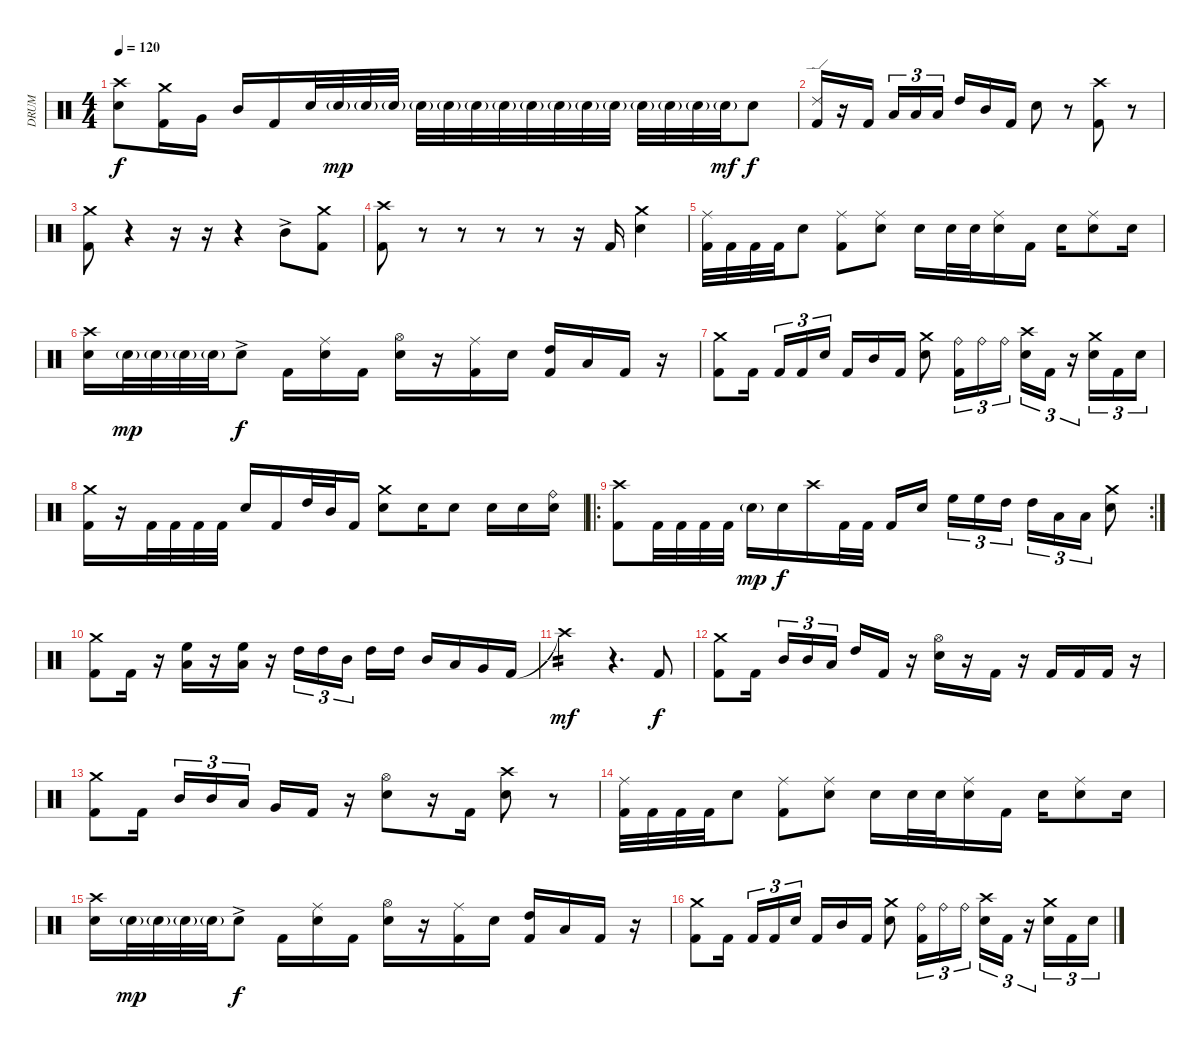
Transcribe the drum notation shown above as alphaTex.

\track ("DRUM" "DRUM") {instrument percussion}
\staff {score}
\articulation defaults
\ts (4 4)
\tempo 120
\clef neutral
\ks c
("Crash high (hit)" "Electric Snare (hit)").8{dy f} ("Crash medium (hit)" "Kick (hit) 2").16 "Very Low Tom (hit)".16 "Mid Tom (hit)".16 "Kick (hit) 2".16 "Electric Snare (hit)".32 "Electric Snare (hit)"{g}.32{dy mp} "Electric Snare (hit)"{g}.32 "Electric Snare (hit)"{g}.32 "Electric Snare (hit)"{g}.32 "Electric Snare (hit)"{g}.32 "Electric Snare (hit)"{g}.32 "Electric Snare (hit)"{g}.32 "Electric Snare (hit)"{g}.32 "Electric Snare (hit)"{g}.32 "Electric Snare (hit)"{g}.32 "Electric Snare (hit)"{g}.32 "Electric Snare (hit)"{g}.32 "Electric Snare (hit)"{g}.32 "Electric Snare (hit)"{g}.32 "Electric Snare (hit)"{g}.32{dy mf} "Electric Snare (hit)".8{dy f} |
("Ride (edge) 2" "Kick (hit) 2").16 r.16 "Kick (hit) 2".16{beam splitsecondary} "Low Tom (hit)".16{tu (3 2)} "Low Tom (hit)".16{tu (3 2)} "Low Tom (hit)".16{tu (3 2) beam splitsecondary} "High Tom (hit)".16 "Mid Tom (hit)".16 "Kick (hit) 2".16 "Electric Snare (hit)".8 r.8 ("Crash high (hit)" "Kick (hit) 2").8 r.8 |
("Crash medium (hit)" "Kick (hit) 2").8 r.4 r.16 r.16 r.4 "Mid Tom (hit)"{ac}.8 ("Crash medium (hit)" "Kick (hit) 2").8 |
("Crash high (hit)" "Kick (hit) 2").8 r.8 r.8 r.8 r.8 r.16 "Kick (hit) 2".16 ("Crash medium (hit)" "Electric Snare (hit)").4 |
("Ride (middle)" "Kick (hit) 2").32 "Kick (hit) 2".32 "Kick (hit) 2".32 "Kick (hit) 2".32 "Electric Snare (hit)".8 ("Ride (middle)" "Kick (hit) 2").8 ("Ride (middle)" "Electric Snare (hit)").8 "Electric Snare (hit)".16 "Electric Snare (hit)".32 "Electric Snare (hit)".32 ("Ride (middle)" "Electric Snare (hit)").16 "Kick (hit) 2".16 "Electric Snare (hit)".16 ("Ride (middle)" "Electric Snare (hit)").8 "Electric Snare (hit)".16 |
("Crash high (hit)" "Electric Snare (hit)").16 "Electric Snare (hit)"{g}.32{dy mp} "Electric Snare (hit)"{g}.32 "Electric Snare (hit)"{g}.32 "Electric Snare (hit)"{g}.32 "Electric Snare (hit)"{ac}.8{dy f} "Kick (hit) 2".16 ("Ride (middle)" "Electric Snare (hit)").16 "Kick (hit) 2".16 ("Hi-Hat (open)" "Electric Snare (hit)").16 r.16 ("Ride (middle)" "Kick (hit) 2").16 "Snare (hit) 2".16 ("High Tom (hit)" "Kick (hit) 2").16 "Low Tom (hit)".16 "Kick (hit) 2".16 r.16 |
("Crash medium (hit)" "Kick (hit) 2").8 "Kick (hit) 2".16{beam splitsecondary} "Kick (hit) 2".16{tu (3 2)} "Kick (hit) 2".16{tu (3 2)} "Snare (hit) 2".16{tu (3 2) beam splitsecondary} "Kick (hit) 2".16 "Mid Tom (hit)".16 "Kick (hit) 2".16 ("Crash medium (hit)" "Electric Snare (hit)").8 ("Ride (bell)" "Kick (hit) 2").16{tu (3 2)} "Ride (bell)".16{tu (3 2)} "Ride (bell)".16{tu (3 2)} ("Crash high (hit)" "Electric Snare (hit)").16{tu (3 2)} "Kick (hit) 2".16{tu (3 2)} r.16{tu (3 2)} ("Crash medium (hit)" "Electric Snare (hit)").16{tu (3 2)} "Kick (hit) 2".16{tu (3 2)} "Snare (hit) 2".16{tu (3 2)} |
("Crash medium (hit)" "Kick (hit) 2").16 r.16 "Kick (hit) 2".32 "Kick (hit) 2".32 "Kick (hit) 2".32 "Kick (hit) 2".32 "Electric Snare (hit)".16 "Kick (hit) 2".16 "High Tom (hit)".32 "Mid Tom (hit)".32 "Kick (hit) 2".16 ("Crash medium (hit)" "Electric Snare (hit)").8 "Snare (hit) 2".16 "Snare (hit) 2".8 "Electric Snare (hit)".16 "Electric Snare (hit)".16 ("Ride (bell)" "Electric Snare (hit)").16 |
\ro
\rc 2
("Crash high (hit)" "Kick (hit) 2").8 "Kick (hit) 2".32 "Kick (hit) 2".32 "Kick (hit) 2".32 "Kick (hit) 2".32 "Electric Snare (hit)"{g}.16{dy mp} "Electric Snare (hit)".16{dy f} "Crash high (hit)".16 "Kick (hit) 2".32 "Kick (hit) 2".32 "Kick (hit) 2".16 "Electric Snare (hit)".16{beam splitsecondary} "High Floor Tom (hit)".16{tu (3 2)} "High Floor Tom (hit)".16{tu (3 2)} "High Tom (hit)".16{tu (3 2)} "High Tom (hit)".16{tu (3 2)} "Low Tom (hit)".16{tu (3 2)} "Low Tom (hit)".16{tu (3 2)} ("Crash medium (hit)" "Electric Snare (hit)").8 |
("Crash medium (hit)" "Kick (hit) 2").8 "Kick (hit) 2".16 r.16 ("High Floor Tom (hit)" "Low Tom (hit)").16 r.16 ("High Floor Tom (hit)" "Low Tom (hit)").16 r.16 "High Tom (hit)".16{tu (3 2)} "High Tom (hit)".16{tu (3 2)} "Mid Tom (hit)".16{tu (3 2) beam splitsecondary} "High Tom (hit)".16 "High Tom (hit)".16 "Mid Tom (hit)".16 "Low Tom (hit)".16 "Very Low Tom (hit)".16 "Kick (hit) 2".16 |
"Crash high (hit)"{t}.2{tp 2 dy mf} r.4{d} "Kick (hit) 2".8{dy f} |
("Crash medium (hit)" "Kick (hit) 2").8 "Kick (hit) 2".16{beam splitsecondary} "Mid Tom (hit)".16{tu (3 2)} "Mid Tom (hit)".16{tu (3 2)} "Low Tom (hit)".16{tu (3 2) beam splitsecondary} "High Tom (hit)".16 "Kick (hit) 2".16 r.16 ("Hi-Hat (open)" "Electric Snare (hit)").16 r.16 "Kick (hit) 2".16 r.16 "Kick (hit) 2".16 "Kick (hit) 2".16 "Kick (hit) 2".16 r.16 |
("Crash medium (hit)" "Kick (hit) 2").8 "Kick (hit) 2".16{beam splitsecondary} "Mid Tom (hit)".16{tu (3 2)} "Mid Tom (hit)".16{tu (3 2)} "Low Tom (hit)".16{tu (3 2) beam splitsecondary} "Very Low Tom (hit)".16 "Kick (hit) 2".16 r.16 ("Hi-Hat (open)" "Electric Snare (hit)").8 r.16 "Kick (hit) 2".16 ("Crash high (hit)" "Electric Snare (hit)").8 r.8 |
("Ride (middle)" "Kick (hit) 2").32 "Kick (hit) 2".32 "Kick (hit) 2".32 "Kick (hit) 2".32 "Electric Snare (hit)".8 ("Ride (middle)" "Kick (hit) 2").8 ("Ride (middle)" "Electric Snare (hit)").8 "Electric Snare (hit)".16 "Electric Snare (hit)".32 "Electric Snare (hit)".32 ("Ride (middle)" "Electric Snare (hit)").16 "Kick (hit) 2".16 "Electric Snare (hit)".16 ("Ride (middle)" "Electric Snare (hit)").8 "Electric Snare (hit)".16 |
("Crash high (hit)" "Electric Snare (hit)").16 "Electric Snare (hit)"{g}.32{dy mp} "Electric Snare (hit)"{g}.32 "Electric Snare (hit)"{g}.32 "Electric Snare (hit)"{g}.32 "Electric Snare (hit)"{ac}.8{dy f} "Kick (hit) 2".16 ("Ride (middle)" "Electric Snare (hit)").16 "Kick (hit) 2".16 ("Hi-Hat (open)" "Electric Snare (hit)").16 r.16 ("Ride (middle)" "Kick (hit) 2").16 "Snare (hit) 2".16 ("High Tom (hit)" "Kick (hit) 2").16 "Low Tom (hit)".16 "Kick (hit) 2".16 r.16 |
("Crash medium (hit)" "Kick (hit) 2").8 "Kick (hit) 2".16{beam splitsecondary} "Kick (hit) 2".16{tu (3 2)} "Kick (hit) 2".16{tu (3 2)} "Snare (hit) 2".16{tu (3 2) beam splitsecondary} "Kick (hit) 2".16 "Mid Tom (hit)".16 "Kick (hit) 2".16 ("Crash medium (hit)" "Electric Snare (hit)").8 ("Ride (bell)" "Kick (hit) 2").16{tu (3 2)} "Ride (bell)".16{tu (3 2)} "Ride (bell)".16{tu (3 2)} ("Crash high (hit)" "Electric Snare (hit)").16{tu (3 2)} "Kick (hit) 2".16{tu (3 2)} r.16{tu (3 2)} ("Crash medium (hit)" "Electric Snare (hit)").16{tu (3 2)} "Kick (hit) 2".16{tu (3 2)} "Snare (hit) 2".16{tu (3 2)}
